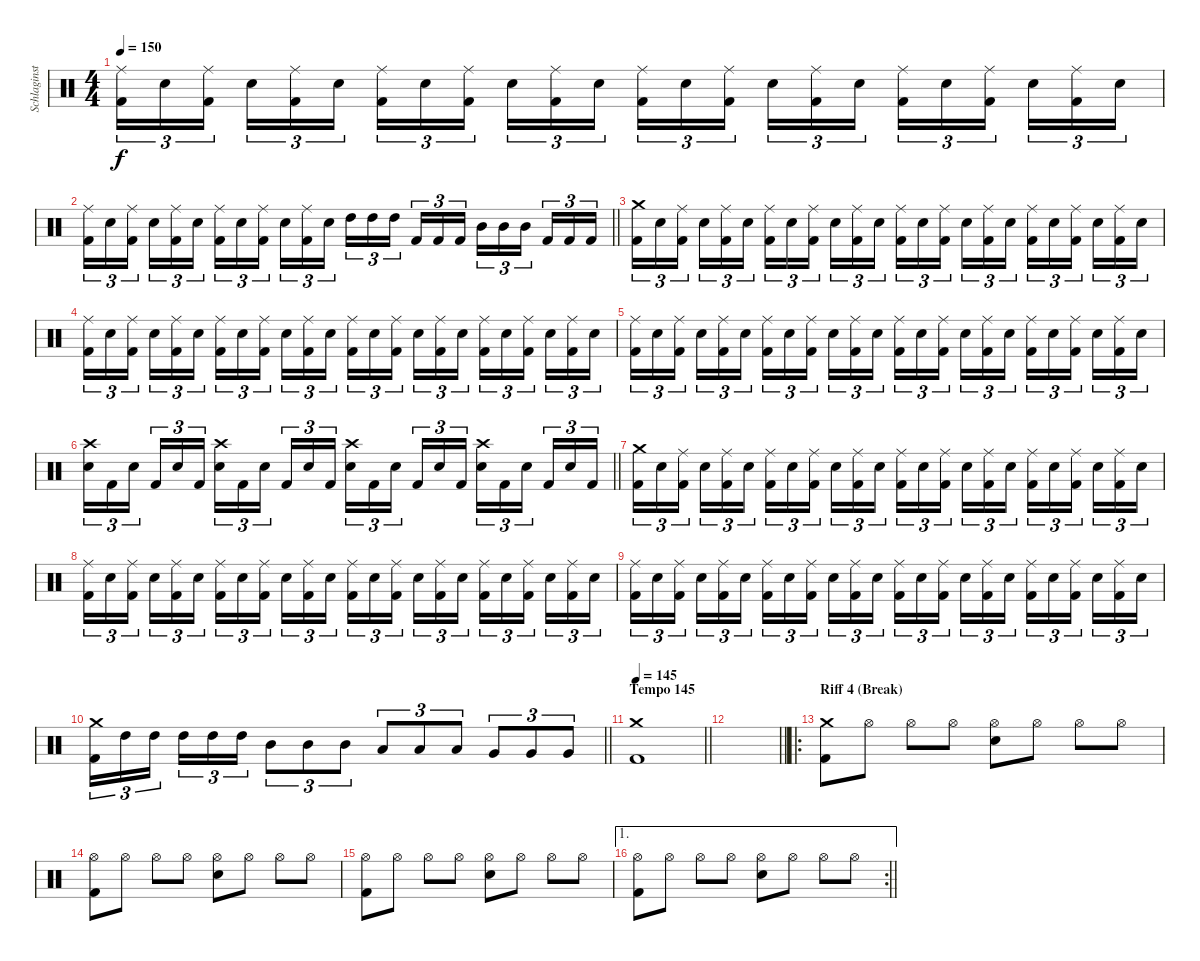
\track ("Schlaginstrumente - Auswahl" "Schlaginst") {instrument percussion}
\staff {score}
\articulation defaults
\ts (4 4)
\tempo 150
\clef neutral
\ks c
("Ride (middle)" "Kick (hit) 2").16{tu (3 2) dy f} "Electric Snare (hit)".16{tu (3 2)} ("Ride (middle)" "Kick (hit) 2").16{tu (3 2) beam splitsecondary} "Electric Snare (hit)".16{tu (3 2)} ("Ride (middle)" "Kick (hit) 2").16{tu (3 2)} "Electric Snare (hit)".16{tu (3 2)} ("Ride (middle)" "Kick (hit) 2").16{tu (3 2)} "Electric Snare (hit)".16{tu (3 2)} ("Ride (middle)" "Kick (hit) 2").16{tu (3 2) beam splitsecondary} "Electric Snare (hit)".16{tu (3 2)} ("Ride (middle)" "Kick (hit) 2").16{tu (3 2)} "Electric Snare (hit)".16{tu (3 2)} ("Ride (middle)" "Kick (hit) 2").16{tu (3 2)} "Electric Snare (hit)".16{tu (3 2)} ("Ride (middle)" "Kick (hit) 2").16{tu (3 2) beam splitsecondary} "Electric Snare (hit)".16{tu (3 2)} ("Ride (middle)" "Kick (hit) 2").16{tu (3 2)} "Electric Snare (hit)".16{tu (3 2)} ("Ride (middle)" "Kick (hit) 2").16{tu (3 2)} "Electric Snare (hit)".16{tu (3 2)} ("Ride (middle)" "Kick (hit) 2").16{tu (3 2) beam splitsecondary} "Electric Snare (hit)".16{tu (3 2)} ("Ride (middle)" "Kick (hit) 2").16{tu (3 2)} "Electric Snare (hit)".16{tu (3 2)} |
\barLineRight lightlight
("Ride (middle)" "Kick (hit) 2").16{tu (3 2)} "Electric Snare (hit)".16{tu (3 2)} ("Ride (middle)" "Kick (hit) 2").16{tu (3 2) beam splitsecondary} "Electric Snare (hit)".16{tu (3 2)} ("Ride (middle)" "Kick (hit) 2").16{tu (3 2)} "Electric Snare (hit)".16{tu (3 2)} ("Ride (middle)" "Kick (hit) 2").16{tu (3 2)} "Electric Snare (hit)".16{tu (3 2)} ("Ride (middle)" "Kick (hit) 2").16{tu (3 2) beam splitsecondary} "Electric Snare (hit)".16{tu (3 2)} ("Ride (middle)" "Kick (hit) 2").16{tu (3 2)} "Electric Snare (hit)".16{tu (3 2)} "High Tom (hit)".16{tu (3 2)} "High Tom (hit)".16{tu (3 2)} "High Tom (hit)".16{tu (3 2) beam splitsecondary} "Kick (hit) 2".16{tu (3 2)} "Kick (hit) 2".16{tu (3 2)} "Kick (hit) 2".16{tu (3 2)} "Mid Tom (hit)".16{tu (3 2)} "Mid Tom (hit)".16{tu (3 2)} "Mid Tom (hit)".16{tu (3 2) beam splitsecondary} "Kick (hit) 2".16{tu (3 2)} "Kick (hit) 2".16{tu (3 2)} "Kick (hit) 2".16{tu (3 2)} |
("Crash medium (hit)" "Kick (hit) 2").16{tu (3 2)} "Electric Snare (hit)".16{tu (3 2)} ("Ride (middle)" "Kick (hit) 2").16{tu (3 2) beam splitsecondary} "Electric Snare (hit)".16{tu (3 2)} ("Ride (middle)" "Kick (hit) 2").16{tu (3 2)} "Electric Snare (hit)".16{tu (3 2)} ("Ride (middle)" "Kick (hit) 2").16{tu (3 2)} "Electric Snare (hit)".16{tu (3 2)} ("Ride (middle)" "Kick (hit) 2").16{tu (3 2) beam splitsecondary} "Electric Snare (hit)".16{tu (3 2)} ("Ride (middle)" "Kick (hit) 2").16{tu (3 2)} "Electric Snare (hit)".16{tu (3 2)} ("Ride (middle)" "Kick (hit) 2").16{tu (3 2)} "Electric Snare (hit)".16{tu (3 2)} ("Ride (middle)" "Kick (hit) 2").16{tu (3 2) beam splitsecondary} "Electric Snare (hit)".16{tu (3 2)} ("Ride (middle)" "Kick (hit) 2").16{tu (3 2)} "Electric Snare (hit)".16{tu (3 2)} ("Ride (middle)" "Kick (hit) 2").16{tu (3 2)} "Electric Snare (hit)".16{tu (3 2)} ("Ride (middle)" "Kick (hit) 2").16{tu (3 2) beam splitsecondary} "Electric Snare (hit)".16{tu (3 2)} ("Ride (middle)" "Kick (hit) 2").16{tu (3 2)} "Electric Snare (hit)".16{tu (3 2)} |
("Ride (middle)" "Kick (hit) 2").16{tu (3 2)} "Electric Snare (hit)".16{tu (3 2)} ("Ride (middle)" "Kick (hit) 2").16{tu (3 2) beam splitsecondary} "Electric Snare (hit)".16{tu (3 2)} ("Ride (middle)" "Kick (hit) 2").16{tu (3 2)} "Electric Snare (hit)".16{tu (3 2)} ("Ride (middle)" "Kick (hit) 2").16{tu (3 2)} "Electric Snare (hit)".16{tu (3 2)} ("Ride (middle)" "Kick (hit) 2").16{tu (3 2) beam splitsecondary} "Electric Snare (hit)".16{tu (3 2)} ("Ride (middle)" "Kick (hit) 2").16{tu (3 2)} "Electric Snare (hit)".16{tu (3 2)} ("Ride (middle)" "Kick (hit) 2").16{tu (3 2)} "Electric Snare (hit)".16{tu (3 2)} ("Ride (middle)" "Kick (hit) 2").16{tu (3 2) beam splitsecondary} "Electric Snare (hit)".16{tu (3 2)} ("Ride (middle)" "Kick (hit) 2").16{tu (3 2)} "Electric Snare (hit)".16{tu (3 2)} ("Ride (middle)" "Kick (hit) 2").16{tu (3 2)} "Electric Snare (hit)".16{tu (3 2)} ("Ride (middle)" "Kick (hit) 2").16{tu (3 2) beam splitsecondary} "Electric Snare (hit)".16{tu (3 2)} ("Ride (middle)" "Kick (hit) 2").16{tu (3 2)} "Electric Snare (hit)".16{tu (3 2)} |
("Ride (middle)" "Kick (hit) 2").16{tu (3 2)} "Electric Snare (hit)".16{tu (3 2)} ("Ride (middle)" "Kick (hit) 2").16{tu (3 2) beam splitsecondary} "Electric Snare (hit)".16{tu (3 2)} ("Ride (middle)" "Kick (hit) 2").16{tu (3 2)} "Electric Snare (hit)".16{tu (3 2)} ("Ride (middle)" "Kick (hit) 2").16{tu (3 2)} "Electric Snare (hit)".16{tu (3 2)} ("Ride (middle)" "Kick (hit) 2").16{tu (3 2) beam splitsecondary} "Electric Snare (hit)".16{tu (3 2)} ("Ride (middle)" "Kick (hit) 2").16{tu (3 2)} "Electric Snare (hit)".16{tu (3 2)} ("Ride (middle)" "Kick (hit) 2").16{tu (3 2)} "Electric Snare (hit)".16{tu (3 2)} ("Ride (middle)" "Kick (hit) 2").16{tu (3 2) beam splitsecondary} "Electric Snare (hit)".16{tu (3 2)} ("Ride (middle)" "Kick (hit) 2").16{tu (3 2)} "Electric Snare (hit)".16{tu (3 2)} ("Ride (middle)" "Kick (hit) 2").16{tu (3 2)} "Electric Snare (hit)".16{tu (3 2)} ("Ride (middle)" "Kick (hit) 2").16{tu (3 2) beam splitsecondary} "Electric Snare (hit)".16{tu (3 2)} ("Ride (middle)" "Kick (hit) 2").16{tu (3 2)} "Electric Snare (hit)".16{tu (3 2)} |
\barLineRight lightlight
("Crash high (hit)" "Electric Snare (hit)").16{tu (3 2)} "Kick (hit) 2".16{tu (3 2)} "Electric Snare (hit)".16{tu (3 2) beam splitsecondary} "Kick (hit) 2".16{tu (3 2)} "Electric Snare (hit)".16{tu (3 2)} "Kick (hit) 2".16{tu (3 2)} ("Crash high (hit)" "Electric Snare (hit)").16{tu (3 2)} "Kick (hit) 2".16{tu (3 2)} "Electric Snare (hit)".16{tu (3 2) beam splitsecondary} "Kick (hit) 2".16{tu (3 2)} "Electric Snare (hit)".16{tu (3 2)} "Kick (hit) 2".16{tu (3 2)} ("Crash high (hit)" "Electric Snare (hit)").16{tu (3 2)} "Kick (hit) 2".16{tu (3 2)} "Electric Snare (hit)".16{tu (3 2) beam splitsecondary} "Kick (hit) 2".16{tu (3 2)} "Electric Snare (hit)".16{tu (3 2)} "Kick (hit) 2".16{tu (3 2)} ("Crash high (hit)" "Electric Snare (hit)").16{tu (3 2)} "Kick (hit) 2".16{tu (3 2)} "Electric Snare (hit)".16{tu (3 2) beam splitsecondary} "Kick (hit) 2".16{tu (3 2)} "Electric Snare (hit)".16{tu (3 2)} "Kick (hit) 2".16{tu (3 2)} |
("Crash medium (hit)" "Kick (hit) 2").16{tu (3 2)} "Electric Snare (hit)".16{tu (3 2)} ("Ride (middle)" "Kick (hit) 2").16{tu (3 2) beam splitsecondary} "Electric Snare (hit)".16{tu (3 2)} ("Ride (middle)" "Kick (hit) 2").16{tu (3 2)} "Electric Snare (hit)".16{tu (3 2)} ("Ride (middle)" "Kick (hit) 2").16{tu (3 2)} "Electric Snare (hit)".16{tu (3 2)} ("Ride (middle)" "Kick (hit) 2").16{tu (3 2) beam splitsecondary} "Electric Snare (hit)".16{tu (3 2)} ("Ride (middle)" "Kick (hit) 2").16{tu (3 2)} "Electric Snare (hit)".16{tu (3 2)} ("Ride (middle)" "Kick (hit) 2").16{tu (3 2)} "Electric Snare (hit)".16{tu (3 2)} ("Ride (middle)" "Kick (hit) 2").16{tu (3 2) beam splitsecondary} "Electric Snare (hit)".16{tu (3 2)} ("Ride (middle)" "Kick (hit) 2").16{tu (3 2)} "Electric Snare (hit)".16{tu (3 2)} ("Ride (middle)" "Kick (hit) 2").16{tu (3 2)} "Electric Snare (hit)".16{tu (3 2)} ("Ride (middle)" "Kick (hit) 2").16{tu (3 2) beam splitsecondary} "Electric Snare (hit)".16{tu (3 2)} ("Ride (middle)" "Kick (hit) 2").16{tu (3 2)} "Electric Snare (hit)".16{tu (3 2)} |
("Ride (middle)" "Kick (hit) 2").16{tu (3 2)} "Electric Snare (hit)".16{tu (3 2)} ("Ride (middle)" "Kick (hit) 2").16{tu (3 2) beam splitsecondary} "Electric Snare (hit)".16{tu (3 2)} ("Ride (middle)" "Kick (hit) 2").16{tu (3 2)} "Electric Snare (hit)".16{tu (3 2)} ("Ride (middle)" "Kick (hit) 2").16{tu (3 2)} "Electric Snare (hit)".16{tu (3 2)} ("Ride (middle)" "Kick (hit) 2").16{tu (3 2) beam splitsecondary} "Electric Snare (hit)".16{tu (3 2)} ("Ride (middle)" "Kick (hit) 2").16{tu (3 2)} "Electric Snare (hit)".16{tu (3 2)} ("Ride (middle)" "Kick (hit) 2").16{tu (3 2)} "Electric Snare (hit)".16{tu (3 2)} ("Ride (middle)" "Kick (hit) 2").16{tu (3 2) beam splitsecondary} "Electric Snare (hit)".16{tu (3 2)} ("Ride (middle)" "Kick (hit) 2").16{tu (3 2)} "Electric Snare (hit)".16{tu (3 2)} ("Ride (middle)" "Kick (hit) 2").16{tu (3 2)} "Electric Snare (hit)".16{tu (3 2)} ("Ride (middle)" "Kick (hit) 2").16{tu (3 2) beam splitsecondary} "Electric Snare (hit)".16{tu (3 2)} ("Ride (middle)" "Kick (hit) 2").16{tu (3 2)} "Electric Snare (hit)".16{tu (3 2)} |
("Ride (middle)" "Kick (hit) 2").16{tu (3 2)} "Electric Snare (hit)".16{tu (3 2)} ("Ride (middle)" "Kick (hit) 2").16{tu (3 2) beam splitsecondary} "Electric Snare (hit)".16{tu (3 2)} ("Ride (middle)" "Kick (hit) 2").16{tu (3 2)} "Electric Snare (hit)".16{tu (3 2)} ("Ride (middle)" "Kick (hit) 2").16{tu (3 2)} "Electric Snare (hit)".16{tu (3 2)} ("Ride (middle)" "Kick (hit) 2").16{tu (3 2) beam splitsecondary} "Electric Snare (hit)".16{tu (3 2)} ("Ride (middle)" "Kick (hit) 2").16{tu (3 2)} "Electric Snare (hit)".16{tu (3 2)} ("Ride (middle)" "Kick (hit) 2").16{tu (3 2)} "Electric Snare (hit)".16{tu (3 2)} ("Ride (middle)" "Kick (hit) 2").16{tu (3 2) beam splitsecondary} "Electric Snare (hit)".16{tu (3 2)} ("Ride (middle)" "Kick (hit) 2").16{tu (3 2)} "Electric Snare (hit)".16{tu (3 2)} ("Ride (middle)" "Kick (hit) 2").16{tu (3 2)} "Electric Snare (hit)".16{tu (3 2)} ("Ride (middle)" "Kick (hit) 2").16{tu (3 2) beam splitsecondary} "Electric Snare (hit)".16{tu (3 2)} ("Ride (middle)" "Kick (hit) 2").16{tu (3 2)} "Electric Snare (hit)".16{tu (3 2)} |
\barLineRight lightlight
("Crash medium (hit)" "Kick (hit) 2").16{tu (3 2)} "High Tom (hit)".16{tu (3 2)} "High Tom (hit)".16{tu (3 2) beam splitsecondary} "High Tom (hit)".16{tu (3 2)} "High Tom (hit)".16{tu (3 2)} "High Tom (hit)".16{tu (3 2)} "Mid Tom (hit)".8{tu (3 2)} "Mid Tom (hit)".8{tu (3 2)} "Mid Tom (hit)".8{tu (3 2)} "Low Tom (hit)".8{tu (3 2)} "Low Tom (hit)".8{tu (3 2)} "Low Tom (hit)".8{tu (3 2)} "Very Low Tom (hit)".8{tu (3 2)} "Very Low Tom (hit)".8{tu (3 2)} "Very Low Tom (hit)".8{tu (3 2)} |
\section ("" "Tempo 145")
\tempo 145
\barLineRight lightlight
("Crash medium (hit)" "Kick (hit) 2").1 |
\barLineRight lightlight
|
\ro
\section ("" "Riff 4 (Break)")
("Crash medium (hit)" "Kick (hit) 2").8 "Hi-Hat (open)".8 "Hi-Hat (open)".8 "Hi-Hat (open)".8 ("Hi-Hat (open)" "Electric Snare (hit)").8 "Hi-Hat (open)".8 "Hi-Hat (open)".8 "Hi-Hat (open)".8 |
("Hi-Hat (open)" "Kick (hit) 2").8 "Hi-Hat (open)".8 "Hi-Hat (open)".8 "Hi-Hat (open)".8 ("Hi-Hat (open)" "Electric Snare (hit)").8 "Hi-Hat (open)".8 "Hi-Hat (open)".8 "Hi-Hat (open)".8 |
("Hi-Hat (open)" "Kick (hit) 2").8 "Hi-Hat (open)".8 "Hi-Hat (open)".8 "Hi-Hat (open)".8 ("Hi-Hat (open)" "Electric Snare (hit)").8 "Hi-Hat (open)".8 "Hi-Hat (open)".8 "Hi-Hat (open)".8 |
\ae 1
\rc 2
\barLineRight lightlight
("Hi-Hat (open)" "Kick (hit) 2").8 "Hi-Hat (open)".8 "Hi-Hat (open)".8 "Hi-Hat (open)".8 ("Hi-Hat (open)" "Electric Snare (hit)").8 "Hi-Hat (open)".8 "Hi-Hat (open)".8 "Hi-Hat (open)".8
